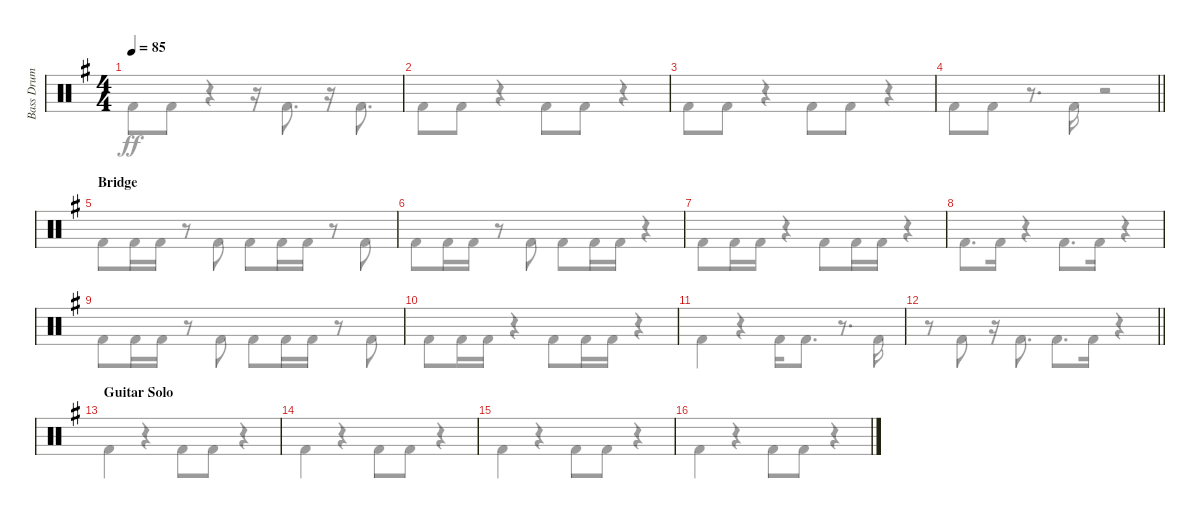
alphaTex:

\track ("Bass Drum" "Bass Drum") {instrument percussion}
\staff {score}
\articulation defaults
\voice
\ts (4 4)
\tempo 85
\clef neutral
\ks g
|
|
|
\barLineRight lightlight
|
\section ("" "Bridge")
|
|
|
|
|
|
|
\barLineRight lightlight
|
\section ("" "Guitar Solo")
|
|
|
\voice
\clef neutral
\ks g "Kick (hit) 2".8{dy ff} "Kick (hit) 2".8
r.4 r.16 "Kick (hit) 2".8{d} r.16 "Kick (hit) 2".8{d} |
"Kick (hit) 2".8 "Kick (hit) 2".8 r.4 "Kick (hit) 2".8 "Kick (hit) 2".8 r.4 |
"Kick (hit) 2".8 "Kick (hit) 2".8 r.4 "Kick (hit) 2".8 "Kick (hit) 2".8 r.4 |
\barLineRight lightlight "Kick (hit) 2".8 "Kick (hit) 2".8
r.8{d} "Kick (hit) 2".16 r.2 |
"Kick (hit) 2".8 "Kick (hit) 2".16 "Kick (hit) 2".16 r.8 "Kick (hit) 2".8 "Kick (hit) 2".8 "Kick (hit) 2".16 "Kick (hit) 2".16 r.8 "Kick (hit) 2".8 |
"Kick (hit) 2".8 "Kick (hit) 2".16 "Kick (hit) 2".16 r.8 "Kick (hit) 2".8 "Kick (hit) 2".8 "Kick (hit) 2".16 "Kick (hit) 2".16 r.4 |
"Kick (hit) 2".8 "Kick (hit) 2".16 "Kick (hit) 2".16 r.4 "Kick (hit) 2".8 "Kick (hit) 2".16 "Kick (hit) 2".16 r.4 |
"Kick (hit) 2".8{d} "Kick (hit) 2".16 r.4 "Kick (hit) 2".8{d} "Kick (hit) 2".16 r.4 |
"Kick (hit) 2".8 "Kick (hit) 2".16 "Kick (hit) 2".16 r.8 "Kick (hit) 2".8 "Kick (hit) 2".8 "Kick (hit) 2".16 "Kick (hit) 2".16 r.8 "Kick (hit) 2".8 |
"Kick (hit) 2".8 "Kick (hit) 2".16 "Kick (hit) 2".16 r.4 "Kick (hit) 2".8 "Kick (hit) 2".16 "Kick (hit) 2".16 r.4 |
"Kick (hit) 2".4 r.4 "Kick (hit) 2".16 "Kick (hit) 2".8{d} r.8{d} "Kick (hit) 2".16 |
\barLineRight lightlight
r.8 "Kick (hit) 2".8 r.16 "Kick (hit) 2".8{d} "Kick (hit) 2".8{d} "Kick (hit) 2".16 r.4 |
"Kick (hit) 2".4 r.4 "Kick (hit) 2".8 "Kick (hit) 2".8 r.4 |
"Kick (hit) 2".4 r.4 "Kick (hit) 2".8 "Kick (hit) 2".8 r.4 |
"Kick (hit) 2".4 r.4 "Kick (hit) 2".8 "Kick (hit) 2".8 r.4 |
"Kick (hit) 2".4 r.4 "Kick (hit) 2".8 "Kick (hit) 2".8 r.4
